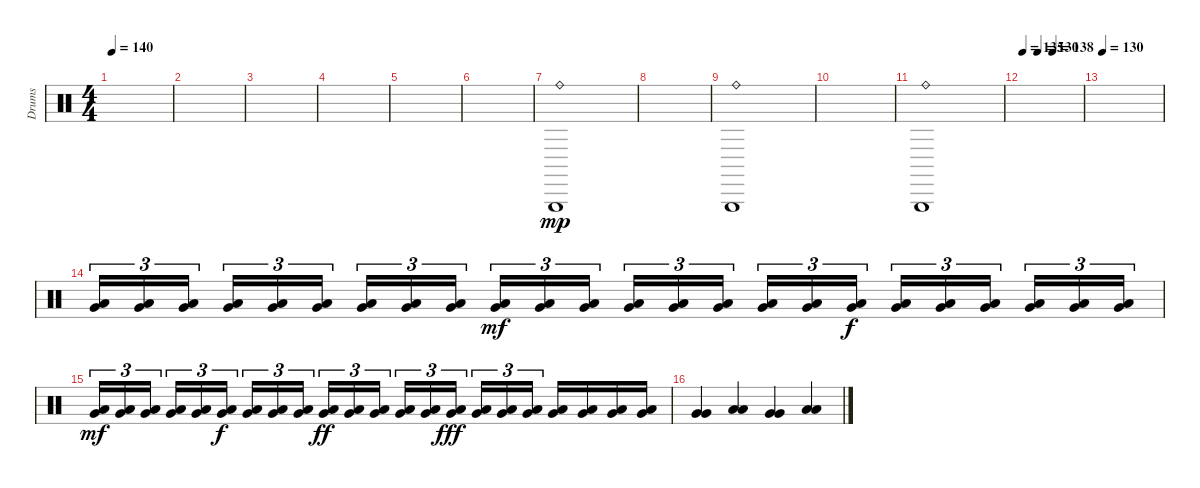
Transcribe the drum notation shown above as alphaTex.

\track ("Drums" "Drums") {instrument percussion}
\staff {score}
\articulation defaults
\ts (4 4)
\tempo 140
\clef neutral
\ks c
|
|
|
|
|
|
("Triangle (hit)" "Ride (bell)").1{dy mp} |
|
("Triangle (hit)" "Ride (bell)").1 |
|
("Triangle (hit)" "Ride (bell)").1 |
\tempo 135
\tempo (130 0.25)
\tempo (138 0.5)
|
\tempo 130
|
("Low Floor Tom (hit)" "Very Low Tom (hit)").16{tu (3 2) volume 9} ("Low Floor Tom (hit)" "Very Low Tom (hit)").16{tu (3 2)} ("Low Floor Tom (hit)" "Very Low Tom (hit)").16{tu (3 2)} ("Low Floor Tom (hit)" "Very Low Tom (hit)").16{tu (3 2)} ("Low Floor Tom (hit)" "Very Low Tom (hit)").16{tu (3 2)} ("Low Floor Tom (hit)" "Very Low Tom (hit)").16{tu (3 2)} ("Low Floor Tom (hit)" "Very Low Tom (hit)").16{tu (3 2)} ("Low Floor Tom (hit)" "Very Low Tom (hit)").16{tu (3 2)} ("Low Floor Tom (hit)" "Very Low Tom (hit)").16{tu (3 2)} ("Low Floor Tom (hit)" "Very Low Tom (hit)").16{tu (3 2) dy mf} ("Low Floor Tom (hit)" "Very Low Tom (hit)").16{tu (3 2)} ("Low Floor Tom (hit)" "Very Low Tom (hit)").16{tu (3 2)} ("Low Floor Tom (hit)" "Very Low Tom (hit)").16{tu (3 2)} ("Low Floor Tom (hit)" "Very Low Tom (hit)").16{tu (3 2)} ("Low Floor Tom (hit)" "Very Low Tom (hit)").16{tu (3 2)} ("Low Floor Tom (hit)" "Very Low Tom (hit)").16{tu (3 2)} ("Low Floor Tom (hit)" "Very Low Tom (hit)").16{tu (3 2)} ("Low Floor Tom (hit)" "Very Low Tom (hit)").16{tu (3 2) dy f} ("Low Floor Tom (hit)" "Very Low Tom (hit)").16{tu (3 2)} ("Low Floor Tom (hit)" "Very Low Tom (hit)").16{tu (3 2)} ("Low Floor Tom (hit)" "Very Low Tom (hit)").16{tu (3 2)} ("Low Floor Tom (hit)" "Very Low Tom (hit)").16{tu (3 2)} ("Low Floor Tom (hit)" "Very Low Tom (hit)").16{tu (3 2)} ("Low Floor Tom (hit)" "Very Low Tom (hit)").16{tu (3 2)} |
("Low Floor Tom (hit)" "Very Low Tom (hit)").16{tu (3 2) dy mf volume 16} ("Low Floor Tom (hit)" "Very Low Tom (hit)").16{tu (3 2)} ("Low Floor Tom (hit)" "Very Low Tom (hit)").16{tu (3 2)} ("Low Floor Tom (hit)" "Very Low Tom (hit)").16{tu (3 2)} ("Low Floor Tom (hit)" "Very Low Tom (hit)").16{tu (3 2)} ("Low Floor Tom (hit)" "Very Low Tom (hit)").16{tu (3 2) dy f} ("Low Floor Tom (hit)" "Very Low Tom (hit)").16{tu (3 2)} ("Low Floor Tom (hit)" "Very Low Tom (hit)").16{tu (3 2)} ("Low Floor Tom (hit)" "Very Low Tom (hit)").16{tu (3 2)} ("Low Floor Tom (hit)" "Very Low Tom (hit)").16{tu (3 2) dy ff} ("Low Floor Tom (hit)" "Very Low Tom (hit)").16{tu (3 2)} ("Low Floor Tom (hit)" "Very Low Tom (hit)").16{tu (3 2)} ("Low Floor Tom (hit)" "Very Low Tom (hit)").16{tu (3 2)} ("Low Floor Tom (hit)" "Very Low Tom (hit)").16{tu (3 2)} ("Low Floor Tom (hit)" "Very Low Tom (hit)").16{tu (3 2) dy fff} ("Low Floor Tom (hit)" "Very Low Tom (hit)").16{tu (3 2)} ("Low Floor Tom (hit)" "Very Low Tom (hit)").16{tu (3 2)} ("Low Floor Tom (hit)" "Very Low Tom (hit)").16{tu (3 2)} ("Low Floor Tom (hit)" "Very Low Tom (hit)").16 ("Low Floor Tom (hit)" "Very Low Tom (hit)").16 ("Low Floor Tom (hit)" "Very Low Tom (hit)").16 ("Low Floor Tom (hit)" "Very Low Tom (hit)").16 |
("Very Low Tom (hit)" "Very Low Tom (hit)").4{volume 16} ("Low Floor Tom (hit)" "Low Floor Tom (hit)").4 ("Very Low Tom (hit)" "Very Low Tom (hit)").4 ("Low Floor Tom (hit)" "Low Floor Tom (hit)").4
